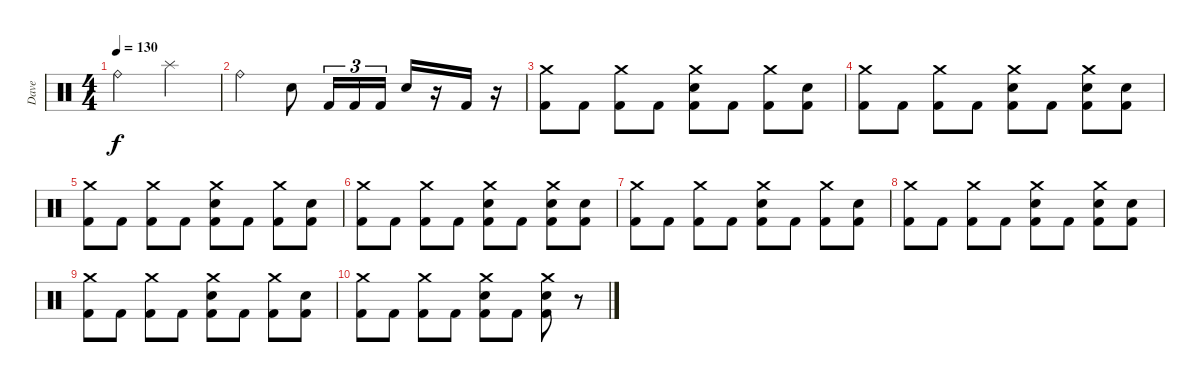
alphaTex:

\track ("Dave" "Dave") {instrument percussion}
\staff {score}
\articulation defaults
\ts (4 4)
\tempo 130
\clef neutral
\ks c "Ride (bell)".2{dy f} "Splash (hit)".2
|
"Ride (bell)".2 "Electric Snare (hit)".8 "Kick (hit) 2".16{tu (3 2)} "Kick (hit) 2".16{tu (3 2)} "Kick (hit) 2".16{tu (3 2)} "Electric Snare (hit)".16 r.16 "Kick (hit) 2".16 r.16 |
("Crash medium (hit)" "Kick (hit) 2").8 "Kick (hit) 2".8 ("Crash medium (hit)" "Kick (hit) 2").8 "Kick (hit) 2".8 ("Crash medium (hit)" "Electric Snare (hit)" "Kick (hit) 2").8 "Kick (hit) 2".8 ("Crash medium (hit)" "Kick (hit) 2").8 ("Electric Snare (hit)" "Kick (hit) 2").8 |
("Crash medium (hit)" "Kick (hit) 2").8 "Kick (hit) 2".8 ("Crash medium (hit)" "Kick (hit) 2").8 "Kick (hit) 2".8 ("Crash medium (hit)" "Electric Snare (hit)" "Kick (hit) 2").8 "Kick (hit) 2".8 ("Crash medium (hit)" "Electric Snare (hit)" "Kick (hit) 2").8 ("Electric Snare (hit)" "Kick (hit) 2").8 |
("Crash medium (hit)" "Kick (hit) 2").8 "Kick (hit) 2".8 ("Crash medium (hit)" "Kick (hit) 2").8 "Kick (hit) 2".8 ("Crash medium (hit)" "Electric Snare (hit)" "Kick (hit) 2").8 "Kick (hit) 2".8 ("Crash medium (hit)" "Kick (hit) 2").8 ("Electric Snare (hit)" "Kick (hit) 2").8 |
("Crash medium (hit)" "Kick (hit) 2").8 "Kick (hit) 2".8 ("Crash medium (hit)" "Kick (hit) 2").8 "Kick (hit) 2".8 ("Crash medium (hit)" "Electric Snare (hit)" "Kick (hit) 2").8 "Kick (hit) 2".8 ("Crash medium (hit)" "Electric Snare (hit)" "Kick (hit) 2").8 ("Electric Snare (hit)" "Kick (hit) 2").8 |
("Crash medium (hit)" "Kick (hit) 2").8 "Kick (hit) 2".8 ("Crash medium (hit)" "Kick (hit) 2").8 "Kick (hit) 2".8 ("Crash medium (hit)" "Electric Snare (hit)" "Kick (hit) 2").8 "Kick (hit) 2".8 ("Crash medium (hit)" "Kick (hit) 2").8 ("Electric Snare (hit)" "Kick (hit) 2").8 |
("Crash medium (hit)" "Kick (hit) 2").8 "Kick (hit) 2".8 ("Crash medium (hit)" "Kick (hit) 2").8 "Kick (hit) 2".8 ("Crash medium (hit)" "Electric Snare (hit)" "Kick (hit) 2").8 "Kick (hit) 2".8 ("Crash medium (hit)" "Electric Snare (hit)" "Kick (hit) 2").8 ("Electric Snare (hit)" "Kick (hit) 2").8 |
("Crash medium (hit)" "Kick (hit) 2").8 "Kick (hit) 2".8 ("Crash medium (hit)" "Kick (hit) 2").8 "Kick (hit) 2".8 ("Crash medium (hit)" "Electric Snare (hit)" "Kick (hit) 2").8 "Kick (hit) 2".8 ("Crash medium (hit)" "Kick (hit) 2").8 ("Electric Snare (hit)" "Kick (hit) 2").8 |
("Crash medium (hit)" "Kick (hit) 2").8 "Kick (hit) 2".8 ("Crash medium (hit)" "Kick (hit) 2").8 "Kick (hit) 2".8 ("Crash medium (hit)" "Electric Snare (hit)" "Kick (hit) 2").8 "Kick (hit) 2".8 ("Crash medium (hit)" "Electric Snare (hit)" "Kick (hit) 2").8 r.8
